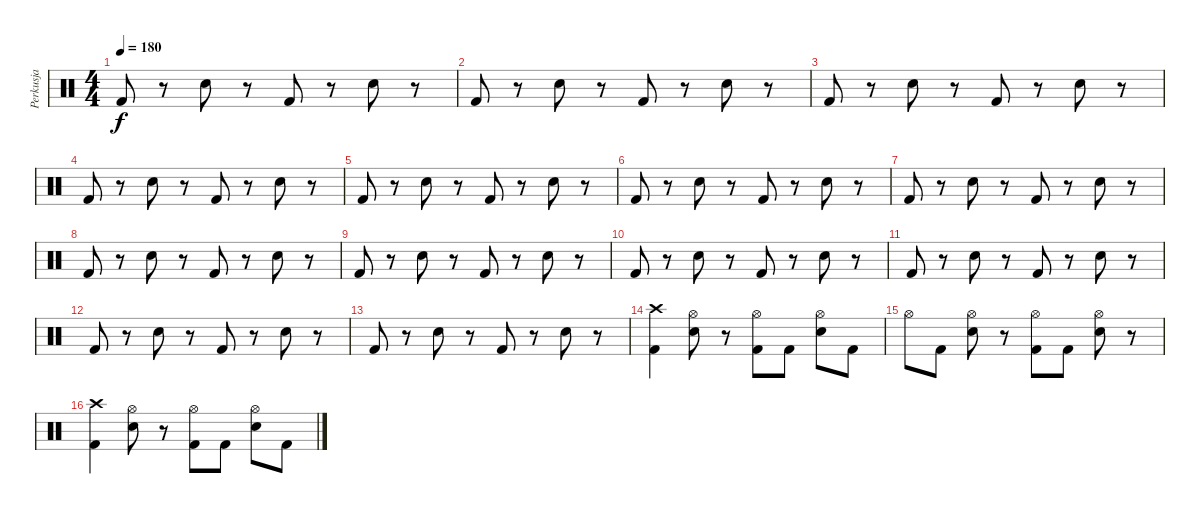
\track ("Perkusja" "Perkusja") {instrument percussion}
\staff {score}
\articulation defaults
\ts (4 4)
\tempo 180
\clef neutral
\ks c "Kick (hit) 2".8{dy f}
r.8 "Electric Snare (hit)".8 r.8 "Kick (hit) 2".8 r.8 "Electric Snare (hit)".8 r.8 |
"Kick (hit) 2".8 r.8 "Electric Snare (hit)".8 r.8 "Kick (hit) 2".8 r.8 "Electric Snare (hit)".8 r.8 |
"Kick (hit) 2".8 r.8 "Electric Snare (hit)".8 r.8 "Kick (hit) 2".8 r.8 "Electric Snare (hit)".8 r.8 |
"Kick (hit) 2".8 r.8 "Electric Snare (hit)".8 r.8 "Kick (hit) 2".8 r.8 "Electric Snare (hit)".8 r.8 |
"Kick (hit) 2".8 r.8 "Electric Snare (hit)".8 r.8 "Kick (hit) 2".8 r.8 "Electric Snare (hit)".8 r.8 |
"Kick (hit) 2".8 r.8 "Electric Snare (hit)".8 r.8 "Kick (hit) 2".8 r.8 "Electric Snare (hit)".8 r.8 |
"Kick (hit) 2".8 r.8 "Electric Snare (hit)".8 r.8 "Kick (hit) 2".8 r.8 "Electric Snare (hit)".8 r.8 |
"Kick (hit) 2".8 r.8 "Electric Snare (hit)".8 r.8 "Kick (hit) 2".8 r.8 "Electric Snare (hit)".8 r.8 |
"Kick (hit) 2".8 r.8 "Electric Snare (hit)".8 r.8 "Kick (hit) 2".8 r.8 "Electric Snare (hit)".8 r.8 |
"Kick (hit) 2".8 r.8 "Electric Snare (hit)".8 r.8 "Kick (hit) 2".8 r.8 "Electric Snare (hit)".8 r.8 |
"Kick (hit) 2".8 r.8 "Electric Snare (hit)".8 r.8 "Kick (hit) 2".8 r.8 "Electric Snare (hit)".8 r.8 |
"Kick (hit) 2".8 r.8 "Electric Snare (hit)".8 r.8 "Kick (hit) 2".8 r.8 "Electric Snare (hit)".8 r.8 |
"Kick (hit) 2".8 r.8 "Electric Snare (hit)".8 r.8 "Kick (hit) 2".8 r.8 "Electric Snare (hit)".8 r.8 |
("Crash high (hit)" "Kick (hit) 2").4 ("Hi-Hat (open)" "Electric Snare (hit)").8 r.8 ("Hi-Hat (open)" "Kick (hit) 2").8 "Kick (hit) 2".8 ("Hi-Hat (open)" "Electric Snare (hit)").8 "Kick (hit) 2".8 |
"Hi-Hat (open)".8 "Kick (hit) 2".8 ("Hi-Hat (open)" "Electric Snare (hit)").8 r.8 ("Hi-Hat (open)" "Kick (hit) 2").8 "Kick (hit) 2".8 ("Hi-Hat (open)" "Electric Snare (hit)").8 r.8 |
("Crash high (hit)" "Kick (hit) 2").4 ("Hi-Hat (open)" "Electric Snare (hit)").8 r.8 ("Hi-Hat (open)" "Kick (hit) 2").8 "Kick (hit) 2".8 ("Hi-Hat (open)" "Electric Snare (hit)").8 "Kick (hit) 2".8
